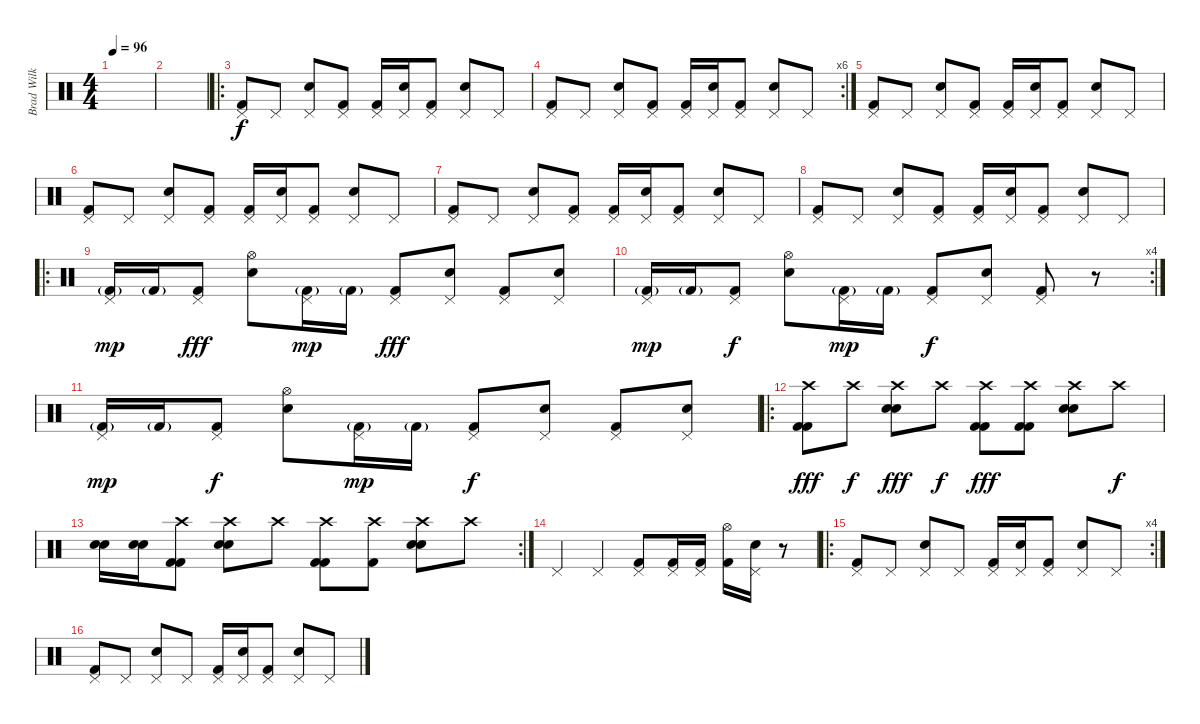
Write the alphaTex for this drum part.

\track ("Brad Wilk" "Brad Wilk") {instrument percussion}
\staff {score}
\articulation defaults
\ts (4 4)
\tempo 96
\clef neutral
\ks c
|
|
\ro
("Pedal Hi-Hat (hit)" "Kick (hit) 2").8 "Pedal Hi-Hat (hit)".8 ("Pedal Hi-Hat (hit)" "Electric Snare (hit)").8 ("Pedal Hi-Hat (hit)" "Kick (hit) 2").8 ("Pedal Hi-Hat (hit)" "Kick (hit) 2").16 ("Pedal Hi-Hat (hit)" "Electric Snare (hit)").16 ("Pedal Hi-Hat (hit)" "Kick (hit) 2").8 ("Pedal Hi-Hat (hit)" "Electric Snare (hit)").8 "Pedal Hi-Hat (hit)".8 |
\rc 6
("Pedal Hi-Hat (hit)" "Kick (hit) 2").8 "Pedal Hi-Hat (hit)".8 ("Pedal Hi-Hat (hit)" "Electric Snare (hit)").8 ("Pedal Hi-Hat (hit)" "Kick (hit) 2").8 ("Pedal Hi-Hat (hit)" "Kick (hit) 2").16 ("Pedal Hi-Hat (hit)" "Electric Snare (hit)").16 ("Pedal Hi-Hat (hit)" "Kick (hit) 2").8 ("Pedal Hi-Hat (hit)" "Electric Snare (hit)").8 "Pedal Hi-Hat (hit)".8 |
("Pedal Hi-Hat (hit)" "Kick (hit) 2").8 "Pedal Hi-Hat (hit)".8 ("Pedal Hi-Hat (hit)" "Electric Snare (hit)").8 ("Pedal Hi-Hat (hit)" "Kick (hit) 2").8 ("Pedal Hi-Hat (hit)" "Kick (hit) 2").16 ("Pedal Hi-Hat (hit)" "Electric Snare (hit)").16 ("Pedal Hi-Hat (hit)" "Kick (hit) 2").8 ("Pedal Hi-Hat (hit)" "Electric Snare (hit)").8 "Pedal Hi-Hat (hit)".8 |
("Pedal Hi-Hat (hit)" "Kick (hit) 2").8 "Pedal Hi-Hat (hit)".8 ("Pedal Hi-Hat (hit)" "Electric Snare (hit)").8 ("Pedal Hi-Hat (hit)" "Kick (hit) 2").8 ("Pedal Hi-Hat (hit)" "Kick (hit) 2").16 ("Pedal Hi-Hat (hit)" "Electric Snare (hit)").16 ("Pedal Hi-Hat (hit)" "Kick (hit) 2").8 ("Pedal Hi-Hat (hit)" "Electric Snare (hit)").8 "Pedal Hi-Hat (hit)".8 |
("Pedal Hi-Hat (hit)" "Kick (hit) 2").8 "Pedal Hi-Hat (hit)".8 ("Pedal Hi-Hat (hit)" "Electric Snare (hit)").8 ("Pedal Hi-Hat (hit)" "Kick (hit) 2").8 ("Pedal Hi-Hat (hit)" "Kick (hit) 2").16 ("Pedal Hi-Hat (hit)" "Electric Snare (hit)").16 ("Pedal Hi-Hat (hit)" "Kick (hit) 2").8 ("Pedal Hi-Hat (hit)" "Electric Snare (hit)").8 "Pedal Hi-Hat (hit)".8 |
("Pedal Hi-Hat (hit)" "Kick (hit) 2").8 "Pedal Hi-Hat (hit)".8 ("Pedal Hi-Hat (hit)" "Electric Snare (hit)").8 ("Pedal Hi-Hat (hit)" "Kick (hit) 2").8 ("Pedal Hi-Hat (hit)" "Kick (hit) 2").16 ("Pedal Hi-Hat (hit)" "Electric Snare (hit)").16 ("Pedal Hi-Hat (hit)" "Kick (hit) 2").8 ("Pedal Hi-Hat (hit)" "Electric Snare (hit)").8 "Pedal Hi-Hat (hit)".8 |
\ro
("Pedal Hi-Hat (hit)" "Kick (hit) 2"{g}).16{dy mp} "Kick (hit) 2"{g}.16 ("Pedal Hi-Hat (hit)" "Kick (hit) 2").8{dy fff} ("Hi-Hat (open)" "Electric Snare (hit)").8 ("Pedal Hi-Hat (hit)" "Kick (hit) 2"{g}).16{dy mp} "Kick (hit) 2"{g}.16 ("Pedal Hi-Hat (hit)" "Kick (hit) 2").8{dy fff} ("Pedal Hi-Hat (hit)" "Electric Snare (hit)").8 ("Pedal Hi-Hat (hit)" "Kick (hit) 2").8 ("Pedal Hi-Hat (hit)" "Electric Snare (hit)").8 |
\rc 4
("Pedal Hi-Hat (hit)" "Kick (hit) 2"{g}).16{dy mp} "Kick (hit) 2"{g}.16 ("Pedal Hi-Hat (hit)" "Kick (hit) 2").8{dy f} ("Hi-Hat (open)" "Electric Snare (hit)").8 ("Pedal Hi-Hat (hit)" "Kick (hit) 2"{g}).16{dy mp} "Kick (hit) 2"{g}.16 ("Pedal Hi-Hat (hit)" "Kick (hit) 2").8{dy f} ("Pedal Hi-Hat (hit)" "Electric Snare (hit)").8 ("Pedal Hi-Hat (hit)" "Kick (hit) 2").8 r.8 |
("Pedal Hi-Hat (hit)" "Kick (hit) 2"{g}).16{dy mp} "Kick (hit) 2"{g}.16 ("Pedal Hi-Hat (hit)" "Kick (hit) 2").8{dy f} ("Hi-Hat (open)" "Electric Snare (hit)").8 ("Pedal Hi-Hat (hit)" "Kick (hit) 2"{g}).16{dy mp} "Kick (hit) 2"{g}.16 ("Pedal Hi-Hat (hit)" "Kick (hit) 2").8{dy f} ("Pedal Hi-Hat (hit)" "Electric Snare (hit)").8 ("Pedal Hi-Hat (hit)" "Kick (hit) 2").8 ("Pedal Hi-Hat (hit)" "Electric Snare (hit)").8 |
\ro
("Crash high (hit)" "Kick (hit) 2" "Kick (hit) 2").8{dy fff} "Crash high (hit)".8{dy f} ("Crash high (hit)" "Electric Snare (hit)" "Electric Snare (hit)").8{dy fff} "Crash high (hit)".8{dy f} ("Crash high (hit)" "Kick (hit) 2" "Kick (hit) 2").8{dy fff} ("Crash high (hit)" "Kick (hit) 2" "Kick (hit) 2").8 ("Crash high (hit)" "Electric Snare (hit)" "Electric Snare (hit)").8 "Crash high (hit)".8{dy f} |
\rc 2
("Electric Snare (hit)" "Electric Snare (hit)").16{volume 11} ("Electric Snare (hit)" "Electric Snare (hit)").16 ("Crash high (hit)" "Kick (hit) 2" "Kick (hit) 2").8 ("Crash high (hit)" "Electric Snare (hit)" "Electric Snare (hit)").8 "Crash high (hit)".8 ("Crash high (hit)" "Kick (hit) 2" "Kick (hit) 2").8 ("Crash high (hit)" "Kick (hit) 2").8 ("Crash high (hit)" "Electric Snare (hit)" "Electric Snare (hit)").8 "Crash high (hit)".8 |
"Pedal Hi-Hat (hit)".4 "Pedal Hi-Hat (hit)".4 ("Pedal Hi-Hat (hit)" "Kick (hit) 2").8 ("Pedal Hi-Hat (hit)" "Kick (hit) 2").16 ("Pedal Hi-Hat (hit)" "Kick (hit) 2").16 ("Hi-Hat (open)" "Kick (hit) 2").16 ("Pedal Hi-Hat (hit)" "Electric Snare (hit)").16 r.8 |
\ro
\rc 4
("Pedal Hi-Hat (hit)" "Kick (hit) 2").8 "Pedal Hi-Hat (hit)".8 ("Pedal Hi-Hat (hit)" "Electric Snare (hit)").8 "Pedal Hi-Hat (hit)".8 ("Pedal Hi-Hat (hit)" "Kick (hit) 2").16 ("Pedal Hi-Hat (hit)" "Electric Snare (hit)").16 ("Pedal Hi-Hat (hit)" "Kick (hit) 2").8 ("Pedal Hi-Hat (hit)" "Electric Snare (hit)").8 "Pedal Hi-Hat (hit)".8 |
("Pedal Hi-Hat (hit)" "Kick (hit) 2").8 "Pedal Hi-Hat (hit)".8 ("Pedal Hi-Hat (hit)" "Electric Snare (hit)").8 "Pedal Hi-Hat (hit)".8 ("Pedal Hi-Hat (hit)" "Kick (hit) 2").16 ("Pedal Hi-Hat (hit)" "Electric Snare (hit)").16 ("Pedal Hi-Hat (hit)" "Kick (hit) 2").8 ("Pedal Hi-Hat (hit)" "Electric Snare (hit)").8 "Pedal Hi-Hat (hit)".8
